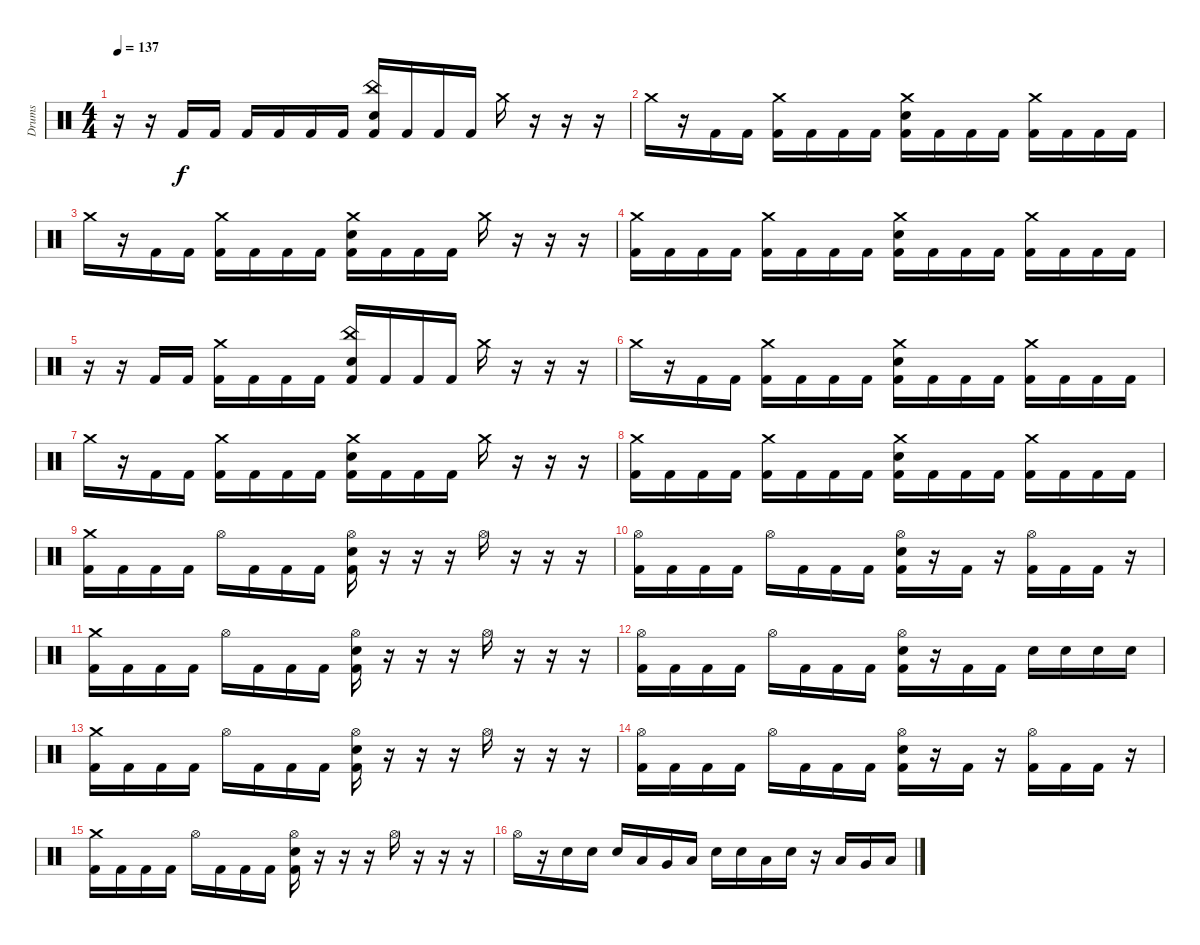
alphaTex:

\track ("Drums" "Drums") {instrument percussion}
\staff {score}
\articulation defaults
\ts (4 4)
\tempo 137
\clef neutral
\ks c
r.16{dy f} r.16 "Kick (hit) 2".16 "Kick (hit) 2".16 "Kick (hit) 2".16 "Kick (hit) 2".16 "Kick (hit) 2".16 "Kick (hit) 2".16 ("China (hit)" "Electric Snare (hit)" "Kick (hit) 2").16 "Kick (hit) 2".16 "Kick (hit) 2".16 "Kick (hit) 2".16 "Crash medium (hit)".16 r.16 r.16 r.16 |
"Crash medium (hit)".16 r.16 "Kick (hit) 2".16 "Kick (hit) 2".16 ("Crash medium (hit)" "Kick (hit) 2").16 "Kick (hit) 2".16 "Kick (hit) 2".16 "Kick (hit) 2".16 ("Crash medium (hit)" "Electric Snare (hit)" "Kick (hit) 2").16 "Kick (hit) 2".16 "Kick (hit) 2".16 "Kick (hit) 2".16 ("Crash medium (hit)" "Kick (hit) 2").16 "Kick (hit) 2".16 "Kick (hit) 2".16 "Kick (hit) 2".16 |
"Crash medium (hit)".16 r.16 "Kick (hit) 2".16 "Kick (hit) 2".16 ("Crash medium (hit)" "Kick (hit) 2").16 "Kick (hit) 2".16 "Kick (hit) 2".16 "Kick (hit) 2".16 ("Crash medium (hit)" "Electric Snare (hit)" "Kick (hit) 2").16 "Kick (hit) 2".16 "Kick (hit) 2".16 "Kick (hit) 2".16 "Crash medium (hit)".16 r.16 r.16 r.16 |
("Crash medium (hit)" "Kick (hit) 2").16 "Kick (hit) 2".16 "Kick (hit) 2".16 "Kick (hit) 2".16 ("Crash medium (hit)" "Kick (hit) 2").16 "Kick (hit) 2".16 "Kick (hit) 2".16 "Kick (hit) 2".16 ("Crash medium (hit)" "Electric Snare (hit)" "Kick (hit) 2").16 "Kick (hit) 2".16 "Kick (hit) 2".16 "Kick (hit) 2".16 ("Crash medium (hit)" "Kick (hit) 2").16 "Kick (hit) 2".16 "Kick (hit) 2".16 "Kick (hit) 2".16 |
r.16 r.16 "Kick (hit) 2".16 "Kick (hit) 2".16 ("Crash medium (hit)" "Kick (hit) 2").16 "Kick (hit) 2".16 "Kick (hit) 2".16 "Kick (hit) 2".16 ("China (hit)" "Electric Snare (hit)" "Kick (hit) 2").16 "Kick (hit) 2".16 "Kick (hit) 2".16 "Kick (hit) 2".16 "Crash medium (hit)".16 r.16 r.16 r.16 |
"Crash medium (hit)".16 r.16 "Kick (hit) 2".16 "Kick (hit) 2".16 ("Crash medium (hit)" "Kick (hit) 2").16 "Kick (hit) 2".16 "Kick (hit) 2".16 "Kick (hit) 2".16 ("Crash medium (hit)" "Electric Snare (hit)" "Kick (hit) 2").16 "Kick (hit) 2".16 "Kick (hit) 2".16 "Kick (hit) 2".16 ("Crash medium (hit)" "Kick (hit) 2").16 "Kick (hit) 2".16 "Kick (hit) 2".16 "Kick (hit) 2".16 |
"Crash medium (hit)".16 r.16 "Kick (hit) 2".16 "Kick (hit) 2".16 ("Crash medium (hit)" "Kick (hit) 2").16 "Kick (hit) 2".16 "Kick (hit) 2".16 "Kick (hit) 2".16 ("Crash medium (hit)" "Electric Snare (hit)" "Kick (hit) 2").16 "Kick (hit) 2".16 "Kick (hit) 2".16 "Kick (hit) 2".16 "Crash medium (hit)".16 r.16 r.16 r.16 |
("Crash medium (hit)" "Kick (hit) 2").16 "Kick (hit) 2".16 "Kick (hit) 2".16 "Kick (hit) 2".16 ("Crash medium (hit)" "Kick (hit) 2").16 "Kick (hit) 2".16 "Kick (hit) 2".16 "Kick (hit) 2".16 ("Crash medium (hit)" "Electric Snare (hit)" "Kick (hit) 2").16 "Kick (hit) 2".16 "Kick (hit) 2".16 "Kick (hit) 2".16 ("Crash medium (hit)" "Kick (hit) 2").16 "Kick (hit) 2".16 "Kick (hit) 2".16 "Kick (hit) 2".16 |
("Crash medium (hit)" "Kick (hit) 2").16 "Kick (hit) 2".16 "Kick (hit) 2".16 "Kick (hit) 2".16 "Hi-Hat (open)".16 "Kick (hit) 2".16 "Kick (hit) 2".16 "Kick (hit) 2".16 ("Hi-Hat (open)" "Electric Snare (hit)" "Kick (hit) 2").16 r.16 r.16 r.16 "Hi-Hat (open)".16 r.16 r.16 r.16 |
("Hi-Hat (open)" "Kick (hit) 2").16 "Kick (hit) 2".16 "Kick (hit) 2".16 "Kick (hit) 2".16 "Hi-Hat (open)".16 "Kick (hit) 2".16 "Kick (hit) 2".16 "Kick (hit) 2".16 ("Hi-Hat (open)" "Electric Snare (hit)" "Kick (hit) 2").16 r.16 "Kick (hit) 2".16 r.16 ("Hi-Hat (open)" "Kick (hit) 2").16 "Kick (hit) 2".16 "Kick (hit) 2".16 r.16 |
("Crash medium (hit)" "Kick (hit) 2").16 "Kick (hit) 2".16 "Kick (hit) 2".16 "Kick (hit) 2".16 "Hi-Hat (open)".16 "Kick (hit) 2".16 "Kick (hit) 2".16 "Kick (hit) 2".16 ("Hi-Hat (open)" "Electric Snare (hit)" "Kick (hit) 2").16 r.16 r.16 r.16 "Hi-Hat (open)".16 r.16 r.16 r.16 |
("Hi-Hat (open)" "Kick (hit) 2").16 "Kick (hit) 2".16 "Kick (hit) 2".16 "Kick (hit) 2".16 "Hi-Hat (open)".16 "Kick (hit) 2".16 "Kick (hit) 2".16 "Kick (hit) 2".16 ("Hi-Hat (open)" "Electric Snare (hit)" "Kick (hit) 2").16 r.16 "Kick (hit) 2".16 "Kick (hit) 2".16 "Electric Snare (hit)".16 "Electric Snare (hit)".16 "Electric Snare (hit)".16 "Electric Snare (hit)".16 |
("Crash medium (hit)" "Kick (hit) 2").16 "Kick (hit) 2".16 "Kick (hit) 2".16 "Kick (hit) 2".16 "Hi-Hat (open)".16 "Kick (hit) 2".16 "Kick (hit) 2".16 "Kick (hit) 2".16 ("Hi-Hat (open)" "Electric Snare (hit)" "Kick (hit) 2").16 r.16 r.16 r.16 "Hi-Hat (open)".16 r.16 r.16 r.16 |
("Hi-Hat (open)" "Kick (hit) 2").16 "Kick (hit) 2".16 "Kick (hit) 2".16 "Kick (hit) 2".16 "Hi-Hat (open)".16 "Kick (hit) 2".16 "Kick (hit) 2".16 "Kick (hit) 2".16 ("Hi-Hat (open)" "Electric Snare (hit)" "Kick (hit) 2").16 r.16 "Kick (hit) 2".16 r.16 ("Hi-Hat (open)" "Kick (hit) 2").16 "Kick (hit) 2".16 "Kick (hit) 2".16 r.16 |
("Crash medium (hit)" "Kick (hit) 2").16 "Kick (hit) 2".16 "Kick (hit) 2".16 "Kick (hit) 2".16 "Hi-Hat (open)".16 "Kick (hit) 2".16 "Kick (hit) 2".16 "Kick (hit) 2".16 ("Hi-Hat (open)" "Electric Snare (hit)" "Kick (hit) 2").16 r.16 r.16 r.16 "Hi-Hat (open)".16 r.16 r.16 r.16 |
"Hi-Hat (open)".16 r.16 "Electric Snare (hit)".16 "Electric Snare (hit)".16 "Electric Snare (hit)".16 "Low Tom (hit)".16 "Very Low Tom (hit)".16 "Low Floor Tom (hit)".16 "Electric Snare (hit)".16 "Electric Snare (hit)".16 "Low Floor Tom (hit)".16 "Electric Snare (hit)".16 r.16 "Low Tom (hit)".16 "Very Low Tom (hit)".16 "Low Floor Tom (hit)".16
